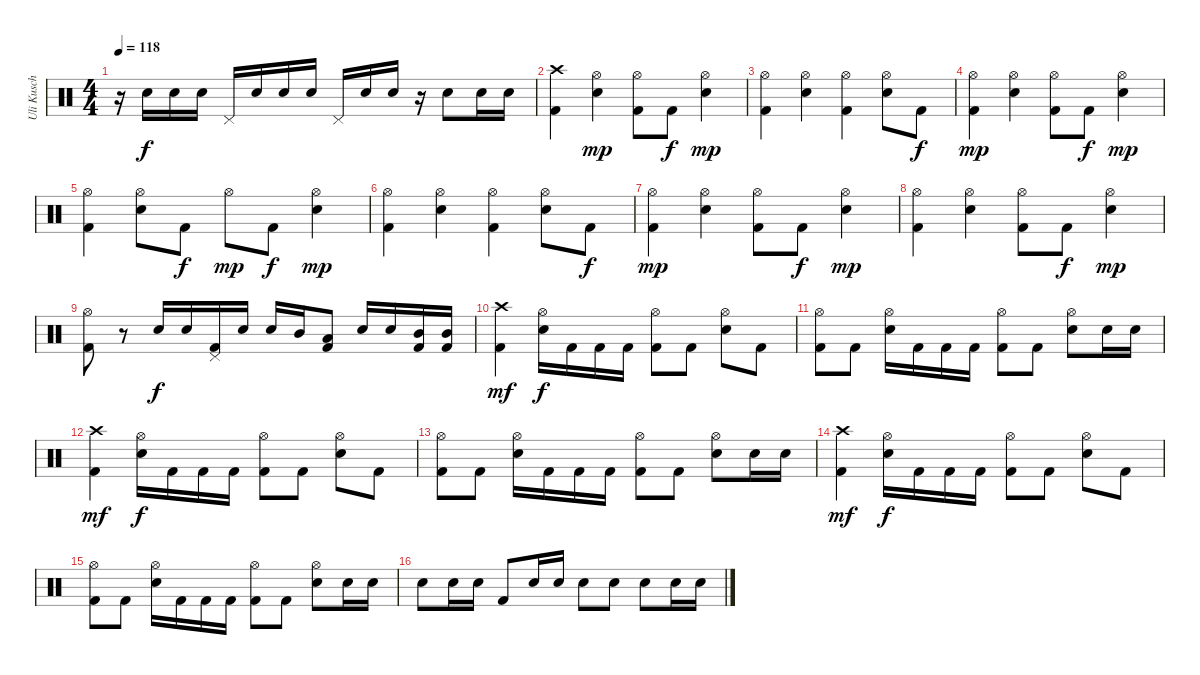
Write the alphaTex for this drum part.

\track ("Uli Kusch" "Uli Kusch") {instrument percussion}
\staff {score}
\articulation defaults
\ts (4 4)
\tempo 118
\clef neutral
\ks c
r.16{dy f} "Electric Snare (hit)".16 "Electric Snare (hit)".16 "Electric Snare (hit)".16 "Pedal Hi-Hat (hit)".16 "Electric Snare (hit)".16 "Electric Snare (hit)".16 "Electric Snare (hit)".16 "Pedal Hi-Hat (hit)".16 "Electric Snare (hit)".16 "Electric Snare (hit)".16 r.16 "Electric Snare (hit)".8 "Electric Snare (hit)".16 "Electric Snare (hit)".16 |
("Crash high (hit)" "Kick (hit) 2").4 ("Electric Snare (hit)" "Hi-Hat (open)").4{dy mp} ("Kick (hit) 2" "Hi-Hat (open)").8 "Kick (hit) 2".8{dy f} ("Electric Snare (hit)" "Hi-Hat (open)").4{dy mp} |
("Kick (hit) 2" "Hi-Hat (open)").4 ("Electric Snare (hit)" "Hi-Hat (open)").4 ("Kick (hit) 2" "Hi-Hat (open)").4 ("Electric Snare (hit)" "Hi-Hat (open)").8 "Kick (hit) 2".8{dy f} |
("Kick (hit) 2" "Hi-Hat (open)").4{dy mp} ("Electric Snare (hit)" "Hi-Hat (open)").4 ("Kick (hit) 2" "Hi-Hat (open)").8 "Kick (hit) 2".8{dy f} ("Electric Snare (hit)" "Hi-Hat (open)").4{dy mp} |
("Kick (hit) 2" "Hi-Hat (open)").4 ("Electric Snare (hit)" "Hi-Hat (open)").8 "Kick (hit) 2".8{dy f} "Hi-Hat (open)".8{dy mp} "Kick (hit) 2".8{dy f} ("Electric Snare (hit)" "Hi-Hat (open)").4{dy mp} |
("Kick (hit) 2" "Hi-Hat (open)").4 ("Electric Snare (hit)" "Hi-Hat (open)").4 ("Kick (hit) 2" "Hi-Hat (open)").4 ("Electric Snare (hit)" "Hi-Hat (open)").8 "Kick (hit) 2".8{dy f} |
("Kick (hit) 2" "Hi-Hat (open)").4{dy mp} ("Electric Snare (hit)" "Hi-Hat (open)").4 ("Kick (hit) 2" "Hi-Hat (open)").8 "Kick (hit) 2".8{dy f} ("Electric Snare (hit)" "Hi-Hat (open)").4{dy mp} |
("Kick (hit) 2" "Hi-Hat (open)").4 ("Electric Snare (hit)" "Hi-Hat (open)").4 ("Kick (hit) 2" "Hi-Hat (open)").8 "Kick (hit) 2".8{dy f} ("Electric Snare (hit)" "Hi-Hat (open)").4{dy mp} |
("Kick (hit) 2" "Hi-Hat (open)").8 r.8 "Electric Snare (hit)".16{dy f} "Electric Snare (hit)".16 ("Pedal Hi-Hat (hit)" "Kick (hit) 2").16 "Electric Snare (hit)".16 "Electric Snare (hit)".16 "Mid Tom (hit)".16 ("Low Tom (hit)" "Kick (hit) 2").8 "Electric Snare (hit)".16 "Electric Snare (hit)".16 ("Mid Tom (hit)" "Kick (hit) 2").16 ("Mid Tom (hit)" "Kick (hit) 2").16 |
("Kick (hit) 2" "Crash high (hit)").4{dy mf} ("Electric Snare (hit)" "Hi-Hat (open)").16{dy f} "Kick (hit) 2".16 "Kick (hit) 2".16 "Kick (hit) 2".16 ("Kick (hit) 2" "Hi-Hat (open)").8 "Kick (hit) 2".8 ("Electric Snare (hit)" "Hi-Hat (open)").8 "Kick (hit) 2".8 |
("Kick (hit) 2" "Hi-Hat (open)").8 "Kick (hit) 2".8 ("Electric Snare (hit)" "Hi-Hat (open)").16 "Kick (hit) 2".16 "Kick (hit) 2".16 "Kick (hit) 2".16 ("Kick (hit) 2" "Hi-Hat (open)").8 "Kick (hit) 2".8 ("Electric Snare (hit)" "Hi-Hat (open)").8 "Electric Snare (hit)".16 "Electric Snare (hit)".16 |
("Kick (hit) 2" "Crash high (hit)").4{dy mf} ("Electric Snare (hit)" "Hi-Hat (open)").16{dy f} "Kick (hit) 2".16 "Kick (hit) 2".16 "Kick (hit) 2".16 ("Kick (hit) 2" "Hi-Hat (open)").8 "Kick (hit) 2".8 ("Electric Snare (hit)" "Hi-Hat (open)").8 "Kick (hit) 2".8 |
("Kick (hit) 2" "Hi-Hat (open)").8 "Kick (hit) 2".8 ("Electric Snare (hit)" "Hi-Hat (open)").16 "Kick (hit) 2".16 "Kick (hit) 2".16 "Kick (hit) 2".16 ("Kick (hit) 2" "Hi-Hat (open)").8 "Kick (hit) 2".8 ("Electric Snare (hit)" "Hi-Hat (open)").8 "Electric Snare (hit)".16 "Electric Snare (hit)".16 |
("Kick (hit) 2" "Crash high (hit)").4{dy mf} ("Electric Snare (hit)" "Hi-Hat (open)").16{dy f} "Kick (hit) 2".16 "Kick (hit) 2".16 "Kick (hit) 2".16 ("Kick (hit) 2" "Hi-Hat (open)").8 "Kick (hit) 2".8 ("Electric Snare (hit)" "Hi-Hat (open)").8 "Kick (hit) 2".8 |
("Kick (hit) 2" "Hi-Hat (open)").8 "Kick (hit) 2".8 ("Electric Snare (hit)" "Hi-Hat (open)").16 "Kick (hit) 2".16 "Kick (hit) 2".16 "Kick (hit) 2".16 ("Kick (hit) 2" "Hi-Hat (open)").8 "Kick (hit) 2".8 ("Electric Snare (hit)" "Hi-Hat (open)").8 "Electric Snare (hit)".16 "Electric Snare (hit)".16 |
"Electric Snare (hit)".8 "Electric Snare (hit)".16 "Electric Snare (hit)".16 "Kick (hit) 2".8 "Electric Snare (hit)".16 "Electric Snare (hit)".16 "Electric Snare (hit)".8 "Electric Snare (hit)".8 "Electric Snare (hit)".8 "Electric Snare (hit)".16 "Electric Snare (hit)".16
